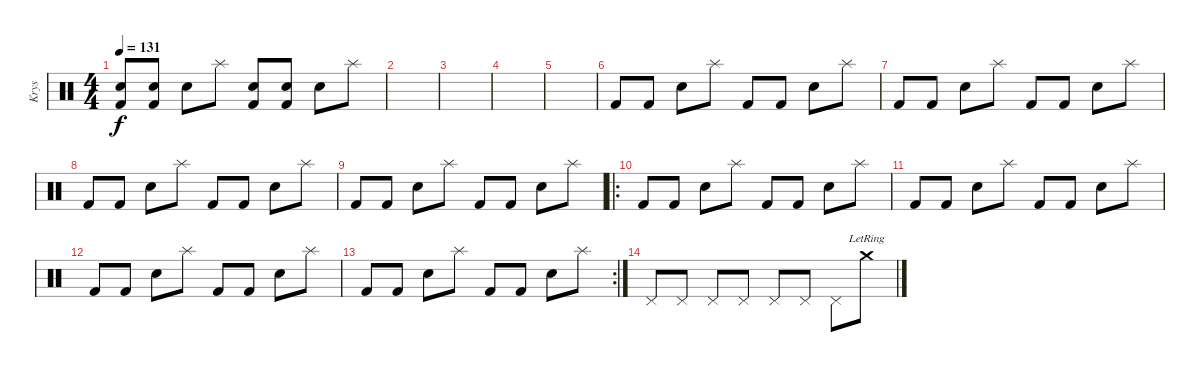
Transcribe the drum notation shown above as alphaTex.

\track ("Krys" "Krys") {instrument percussion}
\staff {score}
\articulation defaults
\ts (4 4)
\tempo 131
\clef neutral
\ks c
("Snare (hit) 2" "Kick (hit) 2").8{dy f} ("Snare (hit) 2" "Kick (hit) 2").8 "Snare (hit) 2".8 "Splash (hit)".8 ("Snare (hit) 2" "Kick (hit) 2").8 ("Snare (hit) 2" "Kick (hit) 2").8 "Snare (hit) 2".8 "Splash (hit)".8 |
|
|
|
|
"Kick (hit) 2".8 "Kick (hit) 2".8 "Snare (hit) 2".8 "Splash (hit)".8 "Kick (hit) 2".8 "Kick (hit) 2".8 "Snare (hit) 2".8 "Splash (hit)".8 |
"Kick (hit) 2".8 "Kick (hit) 2".8 "Snare (hit) 2".8 "Splash (hit)".8 "Kick (hit) 2".8 "Kick (hit) 2".8 "Snare (hit) 2".8 "Splash (hit)".8 |
"Kick (hit) 2".8 "Kick (hit) 2".8 "Snare (hit) 2".8 "Splash (hit)".8 "Kick (hit) 2".8 "Kick (hit) 2".8 "Snare (hit) 2".8 "Splash (hit)".8 |
"Kick (hit) 2".8 "Kick (hit) 2".8 "Snare (hit) 2".8 "Splash (hit)".8 "Kick (hit) 2".8 "Kick (hit) 2".8 "Snare (hit) 2".8 "Splash (hit)".8 |
\ro "Kick (hit) 2".8 "Kick (hit) 2".8 "Snare (hit) 2".8 "Splash (hit)".8 "Kick (hit) 2".8 "Kick (hit) 2".8 "Snare (hit) 2".8 "Splash (hit)".8
|
"Kick (hit) 2".8 "Kick (hit) 2".8 "Snare (hit) 2".8 "Splash (hit)".8 "Kick (hit) 2".8 "Kick (hit) 2".8 "Snare (hit) 2".8 "Splash (hit)".8 |
"Kick (hit) 2".8 "Kick (hit) 2".8 "Snare (hit) 2".8 "Splash (hit)".8 "Kick (hit) 2".8 "Kick (hit) 2".8 "Snare (hit) 2".8 "Splash (hit)".8 |
\rc 2 "Kick (hit) 2".8 "Kick (hit) 2".8 "Snare (hit) 2".8 "Splash (hit)".8 "Kick (hit) 2".8 "Kick (hit) 2".8 "Snare (hit) 2".8 "Splash (hit)".8
|
"Pedal Hi-Hat (hit)".8 "Pedal Hi-Hat (hit)".8 "Pedal Hi-Hat (hit)".8 "Pedal Hi-Hat (hit)".8 "Pedal Hi-Hat (hit)".8 "Pedal Hi-Hat (hit)".8 "Pedal Hi-Hat (hit)".8 "Crash medium (hit)"{lr}.8
